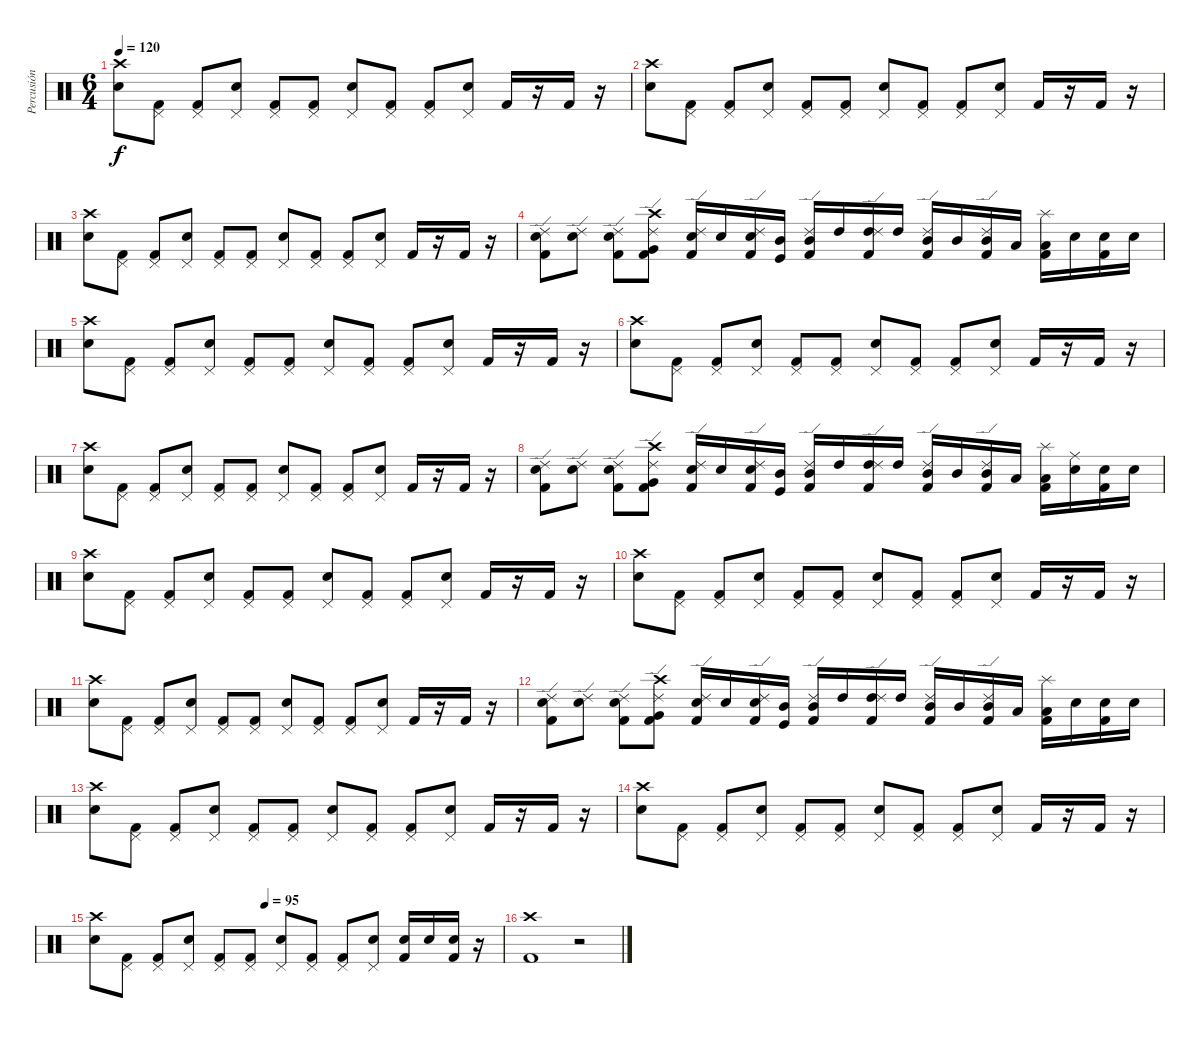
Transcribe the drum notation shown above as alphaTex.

\track ("Percusión" "Percusión") {instrument percussion}
\staff {score}
\articulation defaults
\ts (6 4)
\tempo 120
\clef neutral
\ks c
("Snare (hit) 2" "Crash high (hit)").8{dy f} ("Kick (hit) 2" "Pedal Hi-Hat (hit)").8 ("Kick (hit) 2" "Pedal Hi-Hat (hit)").8 ("Snare (hit) 2" "Pedal Hi-Hat (hit)").8 ("Kick (hit) 2" "Pedal Hi-Hat (hit)").8 ("Kick (hit) 2" "Pedal Hi-Hat (hit)").8 ("Snare (hit) 2" "Pedal Hi-Hat (hit)").8 ("Kick (hit) 2" "Pedal Hi-Hat (hit)").8 ("Kick (hit) 2" "Pedal Hi-Hat (hit)").8 ("Snare (hit) 2" "Pedal Hi-Hat (hit)").8 "Kick (hit) 2".16 r.16 "Kick (hit) 2".16 r.16 |
("Snare (hit) 2" "Crash high (hit)").8 ("Kick (hit) 2" "Pedal Hi-Hat (hit)").8 ("Kick (hit) 2" "Pedal Hi-Hat (hit)").8 ("Snare (hit) 2" "Pedal Hi-Hat (hit)").8 ("Kick (hit) 2" "Pedal Hi-Hat (hit)").8 ("Kick (hit) 2" "Pedal Hi-Hat (hit)").8 ("Snare (hit) 2" "Pedal Hi-Hat (hit)").8 ("Kick (hit) 2" "Pedal Hi-Hat (hit)").8 ("Kick (hit) 2" "Pedal Hi-Hat (hit)").8 ("Snare (hit) 2" "Pedal Hi-Hat (hit)").8 "Kick (hit) 2".16 r.16 "Kick (hit) 2".16 r.16 |
("Snare (hit) 2" "Crash high (hit)").8 ("Kick (hit) 2" "Pedal Hi-Hat (hit)").8 ("Kick (hit) 2" "Pedal Hi-Hat (hit)").8 ("Snare (hit) 2" "Pedal Hi-Hat (hit)").8 ("Kick (hit) 2" "Pedal Hi-Hat (hit)").8 ("Kick (hit) 2" "Pedal Hi-Hat (hit)").8 ("Snare (hit) 2" "Pedal Hi-Hat (hit)").8 ("Kick (hit) 2" "Pedal Hi-Hat (hit)").8 ("Kick (hit) 2" "Pedal Hi-Hat (hit)").8 ("Snare (hit) 2" "Pedal Hi-Hat (hit)").8 "Kick (hit) 2".16 r.16 "Kick (hit) 2".16 r.16 |
("Kick (hit) 2" "Snare (hit) 2" "Ride (edge) 2").8 ("Snare (hit) 2" "Ride (edge) 2").8 ("Kick (hit) 2" "Snare (hit) 2" "Ride (edge) 2").8 ("Kick (hit) 2" "Very Low Tom (hit)" "Crash high (hit)" "Ride (edge) 2").8 ("Kick (hit) 2" "Snare (hit) 2" "Ride (edge) 2").16 "Snare (hit) 2".16 ("Kick (hit) 2" "Snare (hit) 2" "Ride (edge) 2").16 ("Kick (hit)" "Mid Tom (hit)").16 ("Kick (hit) 2" "Mid Tom (hit)" "Ride (edge) 2").16 "High Tom (hit)".16 ("Kick (hit) 2" "High Tom (hit)" "Ride (edge) 2").16 "High Tom (hit)".16 ("Kick (hit) 2" "Mid Tom (hit)" "Ride (edge) 2").16 "Mid Tom (hit)".16 ("Kick (hit) 2" "Mid Tom (hit)" "Ride (edge) 2").16 "Low Tom (hit)".16 ("Kick (hit) 2" "Low Tom (hit)" "Splash (hit)").16 "Snare (hit) 2".16 ("Kick (hit) 2" "Snare (hit) 2").16 "Snare (hit) 2".16 |
("Snare (hit) 2" "Crash high (hit)").8 ("Kick (hit) 2" "Pedal Hi-Hat (hit)").8 ("Kick (hit) 2" "Pedal Hi-Hat (hit)").8 ("Snare (hit) 2" "Pedal Hi-Hat (hit)").8 ("Kick (hit) 2" "Pedal Hi-Hat (hit)").8 ("Kick (hit) 2" "Pedal Hi-Hat (hit)").8 ("Snare (hit) 2" "Pedal Hi-Hat (hit)").8 ("Kick (hit) 2" "Pedal Hi-Hat (hit)").8 ("Kick (hit) 2" "Pedal Hi-Hat (hit)").8 ("Snare (hit) 2" "Pedal Hi-Hat (hit)").8 "Kick (hit) 2".16 r.16 "Kick (hit) 2".16 r.16 |
("Snare (hit) 2" "Crash high (hit)").8 ("Kick (hit) 2" "Pedal Hi-Hat (hit)").8 ("Kick (hit) 2" "Pedal Hi-Hat (hit)").8 ("Snare (hit) 2" "Pedal Hi-Hat (hit)").8 ("Kick (hit) 2" "Pedal Hi-Hat (hit)").8 ("Kick (hit) 2" "Pedal Hi-Hat (hit)").8 ("Snare (hit) 2" "Pedal Hi-Hat (hit)").8 ("Kick (hit) 2" "Pedal Hi-Hat (hit)").8 ("Kick (hit) 2" "Pedal Hi-Hat (hit)").8 ("Snare (hit) 2" "Pedal Hi-Hat (hit)").8 "Kick (hit) 2".16 r.16 "Kick (hit) 2".16 r.16 |
("Snare (hit) 2" "Crash high (hit)").8 ("Kick (hit) 2" "Pedal Hi-Hat (hit)").8 ("Kick (hit) 2" "Pedal Hi-Hat (hit)").8 ("Snare (hit) 2" "Pedal Hi-Hat (hit)").8 ("Kick (hit) 2" "Pedal Hi-Hat (hit)").8 ("Kick (hit) 2" "Pedal Hi-Hat (hit)").8 ("Snare (hit) 2" "Pedal Hi-Hat (hit)").8 ("Kick (hit) 2" "Pedal Hi-Hat (hit)").8 ("Kick (hit) 2" "Pedal Hi-Hat (hit)").8 ("Snare (hit) 2" "Pedal Hi-Hat (hit)").8 "Kick (hit) 2".16 r.16 "Kick (hit) 2".16 r.16 |
("Kick (hit) 2" "Snare (hit) 2" "Ride (edge) 2").8 ("Snare (hit) 2" "Ride (edge) 2").8 ("Kick (hit) 2" "Snare (hit) 2" "Ride (edge) 2").8 ("Kick (hit) 2" "Very Low Tom (hit)" "Crash high (hit)" "Ride (edge) 2").8 ("Kick (hit) 2" "Snare (hit) 2" "Ride (edge) 2").16 "Snare (hit) 2".16 ("Kick (hit) 2" "Snare (hit) 2" "Ride (edge) 2").16 ("Kick (hit)" "Mid Tom (hit)").16 ("Kick (hit) 2" "Mid Tom (hit)" "Ride (edge) 2").16 "High Tom (hit)".16 ("Kick (hit) 2" "High Tom (hit)" "Ride (edge) 2").16 "High Tom (hit)".16 ("Kick (hit) 2" "Mid Tom (hit)" "Ride (edge) 2").16 "Mid Tom (hit)".16 ("Kick (hit) 2" "Mid Tom (hit)" "Ride (edge) 2").16 "Low Tom (hit)".16 ("Kick (hit) 2" "Low Tom (hit)" "Splash (hit)").16 ("Snare (hit) 2" "Ride (middle)").16 ("Kick (hit) 2" "Snare (hit) 2").16 "Snare (hit) 2".16 |
("Snare (hit) 2" "Crash high (hit)").8 ("Kick (hit) 2" "Pedal Hi-Hat (hit)").8 ("Kick (hit) 2" "Pedal Hi-Hat (hit)").8 ("Snare (hit) 2" "Pedal Hi-Hat (hit)").8 ("Kick (hit) 2" "Pedal Hi-Hat (hit)").8 ("Kick (hit) 2" "Pedal Hi-Hat (hit)").8 ("Snare (hit) 2" "Pedal Hi-Hat (hit)").8 ("Kick (hit) 2" "Pedal Hi-Hat (hit)").8 ("Kick (hit) 2" "Pedal Hi-Hat (hit)").8 ("Snare (hit) 2" "Pedal Hi-Hat (hit)").8 "Kick (hit) 2".16 r.16 "Kick (hit) 2".16 r.16 |
("Snare (hit) 2" "Crash high (hit)").8 ("Kick (hit) 2" "Pedal Hi-Hat (hit)").8 ("Kick (hit) 2" "Pedal Hi-Hat (hit)").8 ("Snare (hit) 2" "Pedal Hi-Hat (hit)").8 ("Kick (hit) 2" "Pedal Hi-Hat (hit)").8 ("Kick (hit) 2" "Pedal Hi-Hat (hit)").8 ("Snare (hit) 2" "Pedal Hi-Hat (hit)").8 ("Kick (hit) 2" "Pedal Hi-Hat (hit)").8 ("Kick (hit) 2" "Pedal Hi-Hat (hit)").8 ("Snare (hit) 2" "Pedal Hi-Hat (hit)").8 "Kick (hit) 2".16 r.16 "Kick (hit) 2".16 r.16 |
("Snare (hit) 2" "Crash high (hit)").8 ("Kick (hit) 2" "Pedal Hi-Hat (hit)").8 ("Kick (hit) 2" "Pedal Hi-Hat (hit)").8 ("Snare (hit) 2" "Pedal Hi-Hat (hit)").8 ("Kick (hit) 2" "Pedal Hi-Hat (hit)").8 ("Kick (hit) 2" "Pedal Hi-Hat (hit)").8 ("Snare (hit) 2" "Pedal Hi-Hat (hit)").8 ("Kick (hit) 2" "Pedal Hi-Hat (hit)").8 ("Kick (hit) 2" "Pedal Hi-Hat (hit)").8 ("Snare (hit) 2" "Pedal Hi-Hat (hit)").8 "Kick (hit) 2".16 r.16 "Kick (hit) 2".16 r.16 |
("Kick (hit) 2" "Snare (hit) 2" "Ride (edge) 2").8 ("Snare (hit) 2" "Ride (edge) 2").8 ("Kick (hit) 2" "Snare (hit) 2" "Ride (edge) 2").8 ("Kick (hit) 2" "Very Low Tom (hit)" "Crash high (hit)" "Ride (edge) 2").8 ("Kick (hit) 2" "Snare (hit) 2" "Ride (edge) 2").16 "Snare (hit) 2".16 ("Kick (hit) 2" "Snare (hit) 2" "Ride (edge) 2").16 ("Kick (hit)" "Mid Tom (hit)").16 ("Kick (hit) 2" "Mid Tom (hit)" "Ride (edge) 2").16 "High Tom (hit)".16 ("Kick (hit) 2" "High Tom (hit)" "Ride (edge) 2").16 "High Tom (hit)".16 ("Kick (hit) 2" "Mid Tom (hit)" "Ride (edge) 2").16 "Mid Tom (hit)".16 ("Kick (hit) 2" "Mid Tom (hit)" "Ride (edge) 2").16 "Low Tom (hit)".16 ("Kick (hit) 2" "Low Tom (hit)" "Splash (hit)").16 "Snare (hit) 2".16 ("Kick (hit) 2" "Snare (hit) 2").16 "Snare (hit) 2".16 |
("Snare (hit) 2" "Crash high (hit)").8 ("Kick (hit) 2" "Pedal Hi-Hat (hit)").8 ("Kick (hit) 2" "Pedal Hi-Hat (hit)").8 ("Snare (hit) 2" "Pedal Hi-Hat (hit)").8 ("Kick (hit) 2" "Pedal Hi-Hat (hit)").8 ("Kick (hit) 2" "Pedal Hi-Hat (hit)").8 ("Snare (hit) 2" "Pedal Hi-Hat (hit)").8 ("Kick (hit) 2" "Pedal Hi-Hat (hit)").8 ("Kick (hit) 2" "Pedal Hi-Hat (hit)").8 ("Snare (hit) 2" "Pedal Hi-Hat (hit)").8 "Kick (hit) 2".16 r.16 "Kick (hit) 2".16 r.16 |
("Snare (hit) 2" "Crash high (hit)").8 ("Kick (hit) 2" "Pedal Hi-Hat (hit)").8 ("Kick (hit) 2" "Pedal Hi-Hat (hit)").8 ("Snare (hit) 2" "Pedal Hi-Hat (hit)").8 ("Kick (hit) 2" "Pedal Hi-Hat (hit)").8 ("Kick (hit) 2" "Pedal Hi-Hat (hit)").8 ("Snare (hit) 2" "Pedal Hi-Hat (hit)").8 ("Kick (hit) 2" "Pedal Hi-Hat (hit)").8 ("Kick (hit) 2" "Pedal Hi-Hat (hit)").8 ("Snare (hit) 2" "Pedal Hi-Hat (hit)").8 "Kick (hit) 2".16 r.16 "Kick (hit) 2".16 r.16 |
\tempo (95 0.4166666666666667)
("Snare (hit) 2" "Crash high (hit)").8 ("Kick (hit) 2" "Pedal Hi-Hat (hit)").8 ("Kick (hit) 2" "Pedal Hi-Hat (hit)").8 ("Snare (hit) 2" "Pedal Hi-Hat (hit)").8 ("Kick (hit) 2" "Pedal Hi-Hat (hit)").8 ("Kick (hit) 2" "Pedal Hi-Hat (hit)").8 ("Snare (hit) 2" "Pedal Hi-Hat (hit)").8 ("Kick (hit) 2" "Pedal Hi-Hat (hit)").8 ("Kick (hit) 2" "Pedal Hi-Hat (hit)").8 ("Snare (hit) 2" "Pedal Hi-Hat (hit)").8 ("Kick (hit) 2" "Snare (hit) 2").16 "Snare (hit) 2".16 ("Kick (hit) 2" "Snare (hit) 2").16 r.16 |
("Kick (hit) 2" "Crash high (hit)").1 r.2
